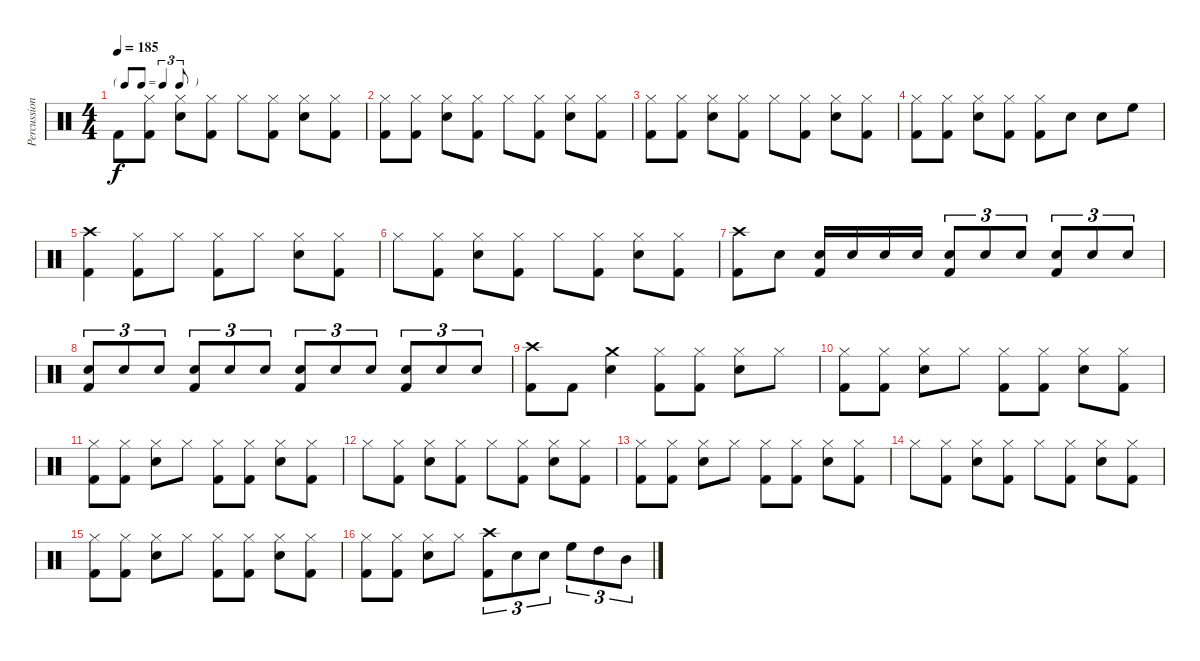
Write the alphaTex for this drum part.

\track ("Percussion" "Percussion") {instrument percussion}
\staff {score}
\articulation defaults
\ts (4 4)
\tf triplet8th
\tempo 185
\clef neutral
\ks c "Kick (hit) 2".8{dy f}
("Kick (hit) 2" "Hi-Hat (closed)").8 ("Snare (hit) 2" "Hi-Hat (closed)").8 ("Kick (hit) 2" "Hi-Hat (closed)").8 "Hi-Hat (closed)".8 ("Kick (hit) 2" "Hi-Hat (closed)").8 ("Snare (hit) 2" "Hi-Hat (closed)").8 ("Kick (hit) 2" "Hi-Hat (closed)").8 |
("Kick (hit) 2" "Hi-Hat (closed)").8 ("Kick (hit) 2" "Hi-Hat (closed)").8 ("Snare (hit) 2" "Hi-Hat (closed)").8 ("Kick (hit) 2" "Hi-Hat (closed)").8 "Hi-Hat (closed)".8 ("Kick (hit) 2" "Hi-Hat (closed)").8 ("Snare (hit) 2" "Hi-Hat (closed)").8 ("Kick (hit) 2" "Hi-Hat (closed)").8 |
("Kick (hit) 2" "Hi-Hat (closed)").8 ("Kick (hit) 2" "Hi-Hat (closed)").8 ("Snare (hit) 2" "Hi-Hat (closed)").8 ("Kick (hit) 2" "Hi-Hat (closed)").8 "Hi-Hat (closed)".8 ("Kick (hit) 2" "Hi-Hat (closed)").8 ("Snare (hit) 2" "Hi-Hat (closed)").8 ("Kick (hit) 2" "Hi-Hat (closed)").8 |
("Kick (hit) 2" "Hi-Hat (closed)").8 ("Kick (hit) 2" "Hi-Hat (closed)").8 ("Snare (hit) 2" "Hi-Hat (closed)").8 ("Kick (hit) 2" "Hi-Hat (closed)").8 ("Kick (hit) 2" "Hi-Hat (closed)").8 "Snare (hit) 2".8 "Snare (hit) 2".8 "High Floor Tom (hit)".8 |
("Kick (hit) 2" "Crash high (hit)").4 ("Kick (hit) 2" "Hi-Hat (closed)").8 "Hi-Hat (closed)".8 ("Kick (hit) 2" "Hi-Hat (closed)").8 "Hi-Hat (closed)".8 ("Snare (hit) 2" "Hi-Hat (closed)").8 ("Kick (hit) 2" "Hi-Hat (closed)").8 |
"Hi-Hat (closed)".8 ("Kick (hit) 2" "Hi-Hat (closed)").8 ("Snare (hit) 2" "Hi-Hat (closed)").8 ("Kick (hit) 2" "Hi-Hat (closed)").8 "Hi-Hat (closed)".8 ("Kick (hit) 2" "Hi-Hat (closed)").8 ("Snare (hit) 2" "Hi-Hat (closed)").8 ("Kick (hit) 2" "Hi-Hat (closed)").8 |
("Kick (hit) 2" "Crash high (hit)").8 "Snare (hit) 2".8 ("Snare (hit) 2" "Kick (hit) 2").16 "Snare (hit) 2".16 "Snare (hit) 2".16 "Snare (hit) 2".16 ("Snare (hit) 2" "Kick (hit) 2").8{tu (3 2)} "Snare (hit) 2".8{tu (3 2)} "Snare (hit) 2".8{tu (3 2)} ("Snare (hit) 2" "Kick (hit) 2").8{tu (3 2)} "Snare (hit) 2".8{tu (3 2)} "Snare (hit) 2".8{tu (3 2)} |
("Snare (hit) 2" "Kick (hit) 2").8{tu (3 2)} "Snare (hit) 2".8{tu (3 2)} "Snare (hit) 2".8{tu (3 2)} ("Snare (hit) 2" "Kick (hit) 2").8{tu (3 2)} "Snare (hit) 2".8{tu (3 2)} "Snare (hit) 2".8{tu (3 2)} ("Snare (hit) 2" "Kick (hit) 2").8{tu (3 2)} "Snare (hit) 2".8{tu (3 2)} "Snare (hit) 2".8{tu (3 2)} ("Snare (hit) 2" "Kick (hit) 2").8{tu (3 2)} "Snare (hit) 2".8{tu (3 2)} "Snare (hit) 2".8{tu (3 2)} |
("Kick (hit) 2" "Crash high (hit)").8 "Kick (hit) 2".8 ("Snare (hit) 2" "Crash medium (hit)").4 ("Kick (hit) 2" "Hi-Hat (closed)").8 ("Kick (hit) 2" "Hi-Hat (closed)").8 ("Snare (hit) 2" "Hi-Hat (closed)").8 "Hi-Hat (closed)".8 |
("Kick (hit) 2" "Hi-Hat (closed)").8 ("Kick (hit) 2" "Hi-Hat (closed)").8 ("Snare (hit) 2" "Hi-Hat (closed)").8 "Hi-Hat (closed)".8 ("Kick (hit) 2" "Hi-Hat (closed)").8 ("Kick (hit) 2" "Hi-Hat (closed)").8 ("Snare (hit) 2" "Hi-Hat (closed)").8 ("Kick (hit) 2" "Hi-Hat (closed)").8 |
("Kick (hit) 2" "Hi-Hat (closed)").8 ("Kick (hit) 2" "Hi-Hat (closed)").8 ("Snare (hit) 2" "Hi-Hat (closed)").8 "Hi-Hat (closed)".8 ("Kick (hit) 2" "Hi-Hat (closed)").8 ("Kick (hit) 2" "Hi-Hat (closed)").8 ("Snare (hit) 2" "Hi-Hat (closed)").8 ("Kick (hit) 2" "Hi-Hat (closed)").8 |
"Hi-Hat (closed)".8 ("Kick (hit) 2" "Hi-Hat (closed)").8 ("Snare (hit) 2" "Hi-Hat (closed)").8 ("Kick (hit) 2" "Hi-Hat (closed)").8 "Hi-Hat (closed)".8 ("Kick (hit) 2" "Hi-Hat (closed)").8 ("Snare (hit) 2" "Hi-Hat (closed)").8 ("Kick (hit) 2" "Hi-Hat (closed)").8 |
("Kick (hit) 2" "Hi-Hat (closed)").8 ("Kick (hit) 2" "Hi-Hat (closed)").8 ("Snare (hit) 2" "Hi-Hat (closed)").8 "Hi-Hat (closed)".8 ("Kick (hit) 2" "Hi-Hat (closed)").8 ("Kick (hit) 2" "Hi-Hat (closed)").8 ("Snare (hit) 2" "Hi-Hat (closed)").8 ("Kick (hit) 2" "Hi-Hat (closed)").8 |
"Hi-Hat (closed)".8 ("Kick (hit) 2" "Hi-Hat (closed)").8 ("Snare (hit) 2" "Hi-Hat (closed)").8 ("Kick (hit) 2" "Hi-Hat (closed)").8 "Hi-Hat (closed)".8 ("Kick (hit) 2" "Hi-Hat (closed)").8 ("Snare (hit) 2" "Hi-Hat (closed)").8 ("Kick (hit) 2" "Hi-Hat (closed)").8 |
("Kick (hit) 2" "Hi-Hat (closed)").8 ("Kick (hit) 2" "Hi-Hat (closed)").8 ("Snare (hit) 2" "Hi-Hat (closed)").8 "Hi-Hat (closed)".8 ("Kick (hit) 2" "Hi-Hat (closed)").8 ("Kick (hit) 2" "Hi-Hat (closed)").8 ("Snare (hit) 2" "Hi-Hat (closed)").8 ("Kick (hit) 2" "Hi-Hat (closed)").8 |
("Kick (hit) 2" "Hi-Hat (closed)").8 ("Kick (hit) 2" "Hi-Hat (closed)").8 ("Snare (hit) 2" "Hi-Hat (closed)").8 "Hi-Hat (closed)".8 ("Kick (hit) 2" "Crash high (hit)").8{tu (3 2)} "Snare (hit) 2".8{tu (3 2)} "Snare (hit) 2".8{tu (3 2)} "High Floor Tom (hit)".8{tu (3 2)} "High Tom (hit)".8{tu (3 2)} "Mid Tom (hit)".8{tu (3 2)}
